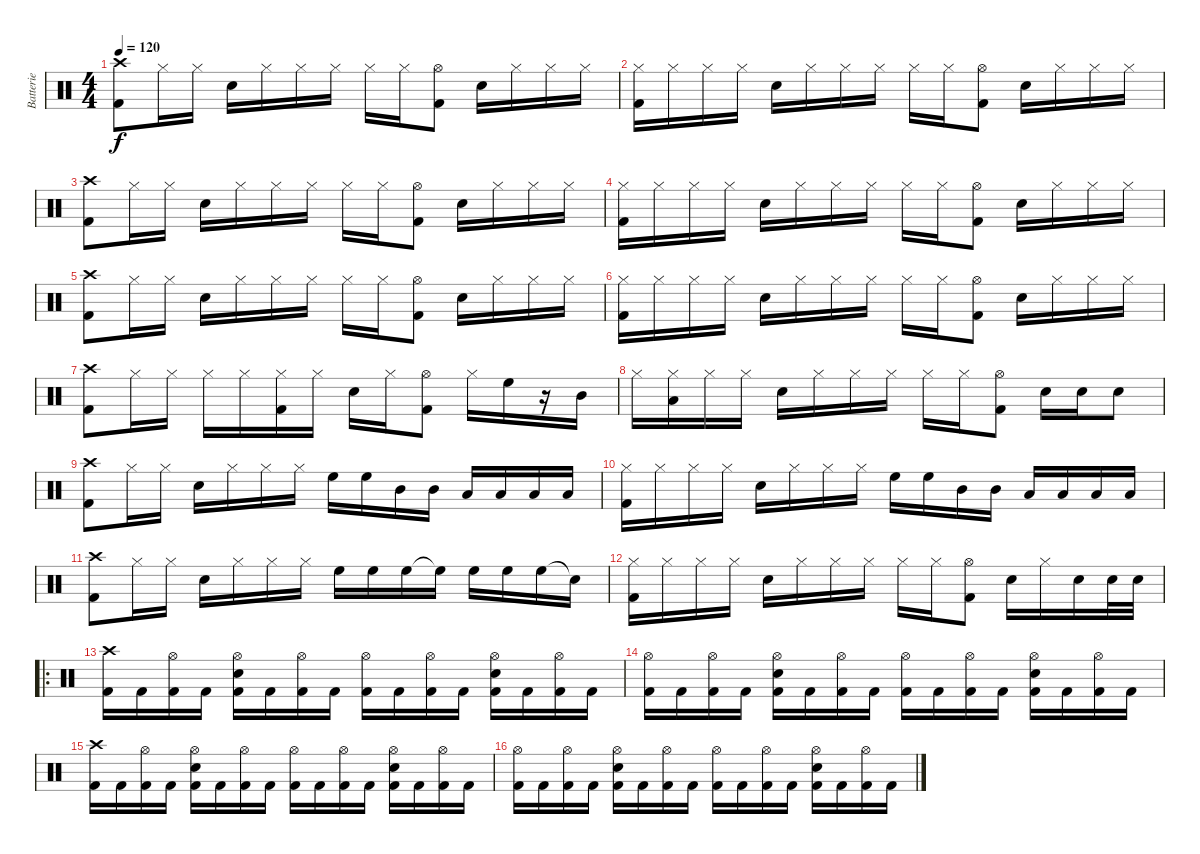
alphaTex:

\track ("Batterie" "Batterie") {instrument percussion}
\staff {score}
\articulation defaults
\ts (4 4)
\tempo 120
\clef neutral
\ks c
("Crash high (hit)" "Kick (hit) 2").8{dy f} "Hi-Hat (closed)".16 "Hi-Hat (closed)".16 "Snare (hit) 2".16 "Hi-Hat (closed)".16 "Hi-Hat (closed)".16 "Hi-Hat (closed)".16 "Hi-Hat (closed)".16 "Hi-Hat (closed)".16 ("Hi-Hat (open)" "Kick (hit) 2").8 "Snare (hit) 2".16 "Hi-Hat (closed)".16 "Hi-Hat (closed)".16 "Hi-Hat (closed)".16 |
("Hi-Hat (closed)" "Kick (hit) 2").16 "Hi-Hat (closed)".16 "Hi-Hat (closed)".16 "Hi-Hat (closed)".16 "Snare (hit) 2".16 "Hi-Hat (closed)".16 "Hi-Hat (closed)".16 "Hi-Hat (closed)".16 "Hi-Hat (closed)".16 "Hi-Hat (closed)".16 ("Hi-Hat (open)" "Kick (hit) 2").8 "Snare (hit) 2".16 "Hi-Hat (closed)".16 "Hi-Hat (closed)".16 "Hi-Hat (closed)".16 |
("Crash high (hit)" "Kick (hit) 2").8 "Hi-Hat (closed)".16 "Hi-Hat (closed)".16 "Snare (hit) 2".16 "Hi-Hat (closed)".16 "Hi-Hat (closed)".16 "Hi-Hat (closed)".16 "Hi-Hat (closed)".16 "Hi-Hat (closed)".16 ("Hi-Hat (open)" "Kick (hit) 2").8 "Snare (hit) 2".16 "Hi-Hat (closed)".16 "Hi-Hat (closed)".16 "Hi-Hat (closed)".16 |
("Hi-Hat (closed)" "Kick (hit) 2").16 "Hi-Hat (closed)".16 "Hi-Hat (closed)".16 "Hi-Hat (closed)".16 "Snare (hit) 2".16 "Hi-Hat (closed)".16 "Hi-Hat (closed)".16 "Hi-Hat (closed)".16 "Hi-Hat (closed)".16 "Hi-Hat (closed)".16 ("Hi-Hat (open)" "Kick (hit) 2").8 "Snare (hit) 2".16 "Hi-Hat (closed)".16 "Hi-Hat (closed)".16 "Hi-Hat (closed)".16 |
("Crash high (hit)" "Kick (hit) 2").8 "Hi-Hat (closed)".16 "Hi-Hat (closed)".16 "Snare (hit) 2".16 "Hi-Hat (closed)".16 "Hi-Hat (closed)".16 "Hi-Hat (closed)".16 "Hi-Hat (closed)".16 "Hi-Hat (closed)".16 ("Hi-Hat (open)" "Kick (hit) 2").8 "Snare (hit) 2".16 "Hi-Hat (closed)".16 "Hi-Hat (closed)".16 "Hi-Hat (closed)".16 |
("Hi-Hat (closed)" "Kick (hit) 2").16 "Hi-Hat (closed)".16 "Hi-Hat (closed)".16 "Hi-Hat (closed)".16 "Snare (hit) 2".16 "Hi-Hat (closed)".16 "Hi-Hat (closed)".16 "Hi-Hat (closed)".16 "Hi-Hat (closed)".16 "Hi-Hat (closed)".16 ("Hi-Hat (open)" "Kick (hit) 2").8 "Snare (hit) 2".16 "Hi-Hat (closed)".16 "Hi-Hat (closed)".16 "Hi-Hat (closed)".16 |
("Crash high (hit)" "Kick (hit) 2").8 "Hi-Hat (closed)".16 "Hi-Hat (closed)".16 "Hi-Hat (closed)".16 "Hi-Hat (closed)".16 ("Hi-Hat (closed)" "Kick (hit) 2").16 "Hi-Hat (closed)".16 "Snare (hit) 2".16 "Hi-Hat (closed)".16 ("Hi-Hat (open)" "Kick (hit) 2").8 "Hi-Hat (closed)".16 "High Floor Tom (hit)".16 r.16 "Mid Tom (hit)".16 |
"Hi-Hat (closed)".16 ("Hi-Hat (closed)" "Low Tom (hit)").16 "Hi-Hat (closed)".16 "Hi-Hat (closed)".16 "Snare (hit) 2".16 "Hi-Hat (closed)".16 "Hi-Hat (closed)".16 "Hi-Hat (closed)".16 "Hi-Hat (closed)".16 "Hi-Hat (closed)".16 ("Hi-Hat (open)" "Kick (hit) 2").8 "Snare (hit) 2".16 "Snare (hit) 2".16 "Snare (hit) 2".8 |
("Crash high (hit)" "Kick (hit) 2").8 "Hi-Hat (closed)".16 "Hi-Hat (closed)".16 "Snare (hit) 2".16 "Hi-Hat (closed)".16 "Hi-Hat (closed)".16 "Hi-Hat (closed)".16 "High Floor Tom (hit)".16 "High Floor Tom (hit)".16 "Mid Tom (hit)".16 "Mid Tom (hit)".16 "Low Tom (hit)".16 "Low Tom (hit)".16 "Low Floor Tom (hit)".16 "Low Floor Tom (hit)".16 |
("Hi-Hat (closed)" "Kick (hit) 2").16 "Hi-Hat (closed)".16 "Hi-Hat (closed)".16 "Hi-Hat (closed)".16 "Snare (hit) 2".16 "Hi-Hat (closed)".16 "Hi-Hat (closed)".16 "Hi-Hat (closed)".16 "High Floor Tom (hit)".16 "High Floor Tom (hit)".16 "Mid Tom (hit)".16 "Mid Tom (hit)".16 "Low Tom (hit)".16 "Low Tom (hit)".16 "Low Floor Tom (hit)".16 "Low Floor Tom (hit)".16 |
("Crash high (hit)" "Kick (hit) 2").8 "Hi-Hat (closed)".16 "Hi-Hat (closed)".16 "Snare (hit) 2".16 "Hi-Hat (closed)".16 "Hi-Hat (closed)".16 "Hi-Hat (closed)".16 "High Floor Tom (hit)".16 "High Floor Tom (hit)".16 "High Floor Tom (hit)".16 "High Floor Tom (hit)"{t}.16 "High Floor Tom (hit)".16 "High Floor Tom (hit)".16 "High Floor Tom (hit)".16 "Snare (hit) 2"{t}.16 |
("Hi-Hat (closed)" "Kick (hit) 2").16 "Hi-Hat (closed)".16 "Hi-Hat (closed)".16 "Hi-Hat (closed)".16 "Snare (hit) 2".16 "Hi-Hat (closed)".16 "Hi-Hat (closed)".16 "Hi-Hat (closed)".16 "Hi-Hat (closed)".16 "Hi-Hat (closed)".16 ("Hi-Hat (open)" "Kick (hit) 2").8 "Snare (hit) 2".16 "Hi-Hat (closed)".16 "Snare (hit) 2".16 "Snare (hit) 2".32 "Snare (hit) 2".32 |
\ro
("Crash high (hit)" "Kick (hit) 2").16 "Kick (hit) 2".16 ("Hi-Hat (open)" "Kick (hit) 2").16 "Kick (hit) 2".16 ("Hi-Hat (open)" "Snare (hit) 2" "Kick (hit) 2").16 "Kick (hit) 2".16 ("Hi-Hat (open)" "Kick (hit) 2").16 "Kick (hit) 2".16 ("Hi-Hat (open)" "Kick (hit) 2").16 "Kick (hit) 2".16 ("Hi-Hat (open)" "Kick (hit) 2").16 "Kick (hit) 2".16 ("Hi-Hat (open)" "Snare (hit) 2" "Kick (hit) 2").16 "Kick (hit) 2".16 ("Hi-Hat (open)" "Kick (hit) 2").16 "Kick (hit) 2".16 |
("Hi-Hat (open)" "Kick (hit) 2").16 "Kick (hit) 2".16 ("Hi-Hat (open)" "Kick (hit) 2").16 "Kick (hit) 2".16 ("Hi-Hat (open)" "Snare (hit) 2" "Kick (hit) 2").16 "Kick (hit) 2".16 ("Hi-Hat (open)" "Kick (hit) 2").16 "Kick (hit) 2".16 ("Hi-Hat (open)" "Kick (hit) 2").16 "Kick (hit) 2".16 ("Hi-Hat (open)" "Kick (hit) 2").16 "Kick (hit) 2".16 ("Hi-Hat (open)" "Snare (hit) 2" "Kick (hit) 2").16 "Kick (hit) 2".16 ("Hi-Hat (open)" "Kick (hit) 2").16 "Kick (hit) 2".16 |
("Crash high (hit)" "Kick (hit) 2").16 "Kick (hit) 2".16 ("Hi-Hat (open)" "Kick (hit) 2").16 "Kick (hit) 2".16 ("Hi-Hat (open)" "Snare (hit) 2" "Kick (hit) 2").16 "Kick (hit) 2".16 ("Hi-Hat (open)" "Kick (hit) 2").16 "Kick (hit) 2".16 ("Hi-Hat (open)" "Kick (hit) 2").16 "Kick (hit) 2".16 ("Hi-Hat (open)" "Kick (hit) 2").16 "Kick (hit) 2".16 ("Hi-Hat (open)" "Snare (hit) 2" "Kick (hit) 2").16 "Kick (hit) 2".16 ("Hi-Hat (open)" "Kick (hit) 2").16 "Kick (hit) 2".16 |
("Hi-Hat (open)" "Kick (hit) 2").16 "Kick (hit) 2".16 ("Hi-Hat (open)" "Kick (hit) 2").16 "Kick (hit) 2".16 ("Hi-Hat (open)" "Snare (hit) 2" "Kick (hit) 2").16 "Kick (hit) 2".16 ("Hi-Hat (open)" "Kick (hit) 2").16 "Kick (hit) 2".16 ("Hi-Hat (open)" "Kick (hit) 2").16 "Kick (hit) 2".16 ("Hi-Hat (open)" "Kick (hit) 2").16 "Kick (hit) 2".16 ("Hi-Hat (open)" "Snare (hit) 2" "Kick (hit) 2").16 "Kick (hit) 2".16 ("Hi-Hat (open)" "Kick (hit) 2").16 "Kick (hit) 2".16
